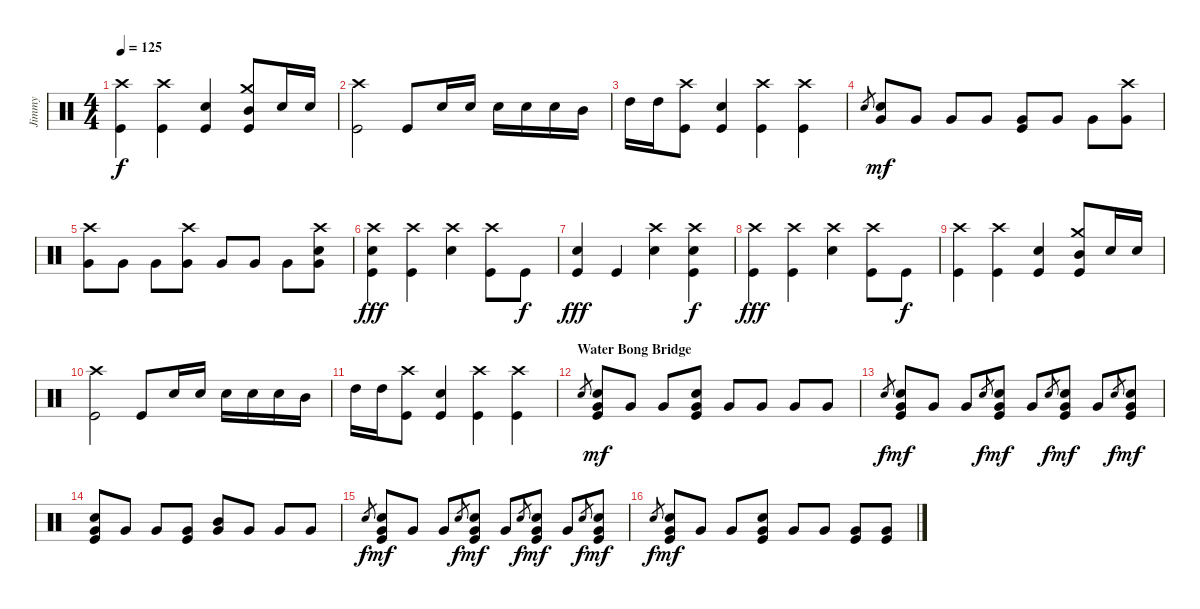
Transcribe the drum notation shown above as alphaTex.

\track ("Jimmy" "Jimmy") {instrument percussion}
\staff {score}
\articulation defaults
\ts (4 4)
\tempo 125
\clef neutral
\ks c
("Crash high (hit)" "Kick (hit)").4{dy f} ("Crash high (hit)" "Kick (hit)").4 ("Snare (hit) 2" "Kick (hit)").4 ("Crash medium (hit)" "Mid Tom (hit)" "Kick (hit)").8 "Snare (hit) 2".16 "Snare (hit) 2".16 |
("Crash high (hit)" "Kick (hit)").2 "Kick (hit)".8 "Snare (hit) 2".16 "Snare (hit) 2".16 "Snare (hit) 2".16 "Snare (hit) 2".16 "Snare (hit) 2".16 "Mid Tom (hit)".16 |
"High Tom (hit)".16 "High Tom (hit)".16 ("Crash high (hit)" "Kick (hit)").8 ("Snare (hit) 2" "Kick (hit)").4 ("Crash high (hit)" "Kick (hit)").4 ("Crash high (hit)" "Kick (hit)").4 |
"Electric Snare (hit)".8{gr} ("Electric Snare (hit)" "Very Low Tom (hit)").8{dy mf} "Very Low Tom (hit)".8 "Very Low Tom (hit)".8 "Very Low Tom (hit)".8 ("Kick (hit)" "Very Low Tom (hit)").8 "Very Low Tom (hit)".8 "Very Low Tom (hit)".8 ("Crash high (hit)" "Very Low Tom (hit)").8 |
("Crash high (hit)" "Very Low Tom (hit)").8 "Very Low Tom (hit)".8 "Very Low Tom (hit)".8 ("Crash high (hit)" "Very Low Tom (hit)").8 "Very Low Tom (hit)".8 "Very Low Tom (hit)".8 "Very Low Tom (hit)".8 ("Crash high (hit)" "Electric Snare (hit)" "Very Low Tom (hit)").8 |
("Crash high (hit)" "Snare (hit) 2" "Kick (hit)").4{dy fff} ("Crash high (hit)" "Kick (hit)").4 ("Crash high (hit)" "Snare (hit) 2").4 ("Crash high (hit)" "Kick (hit)").8 "Kick (hit)".8{dy f} |
("Snare (hit) 2" "Kick (hit)").4{dy fff} "Kick (hit)".4 ("Crash high (hit)" "Snare (hit) 2").4 ("Crash high (hit)" "Snare (hit) 2" "Kick (hit)").4{dy f} |
("Crash high (hit)" "Kick (hit)").4{dy fff} ("Crash high (hit)" "Kick (hit)").4 ("Crash high (hit)" "Snare (hit) 2").4 ("Crash high (hit)" "Kick (hit)").8 "Kick (hit)".8{dy f} |
("Crash high (hit)" "Kick (hit)").4 ("Crash high (hit)" "Kick (hit)").4 ("Snare (hit) 2" "Kick (hit)").4 ("Crash medium (hit)" "Mid Tom (hit)" "Kick (hit)").8 "Snare (hit) 2".16 "Snare (hit) 2".16 |
("Crash high (hit)" "Kick (hit)").2 "Kick (hit)".8 "Snare (hit) 2".16 "Snare (hit) 2".16 "Snare (hit) 2".16 "Snare (hit) 2".16 "Snare (hit) 2".16 "Mid Tom (hit)".16 |
"High Tom (hit)".16 "High Tom (hit)".16 ("Crash high (hit)" "Kick (hit)").8 ("Snare (hit) 2" "Kick (hit)").4 ("Crash high (hit)" "Kick (hit)").4 ("Crash high (hit)" "Kick (hit)").4 |
\section ("" "Water Bong Bridge")
"Electric Snare (hit)".8{gr} ("Kick (hit)" "Electric Snare (hit)" "Very Low Tom (hit)").8{dy mf} "Very Low Tom (hit)".8 "Very Low Tom (hit)".8 ("Kick (hit)" "Electric Snare (hit)" "Very Low Tom (hit)").8 "Very Low Tom (hit)".8 "Very Low Tom (hit)".8 "Very Low Tom (hit)".8 "Very Low Tom (hit)".8 |
"Electric Snare (hit)".8{gr dy f} ("Kick (hit)" "Electric Snare (hit)" "Very Low Tom (hit)").8{dy mf} "Very Low Tom (hit)".8 "Very Low Tom (hit)".8 "Electric Snare (hit)".8{gr dy f} ("Kick (hit)" "Electric Snare (hit)" "Very Low Tom (hit)").8{dy mf} "Very Low Tom (hit)".8 "Electric Snare (hit)".8{gr dy f} ("Kick (hit)" "Electric Snare (hit)" "Very Low Tom (hit)").8{dy mf} "Very Low Tom (hit)".8 "Electric Snare (hit)".8{gr dy f} ("Kick (hit)" "Electric Snare (hit)" "Very Low Tom (hit)").8{dy mf} |
("Kick (hit)" "Electric Snare (hit)" "Very Low Tom (hit)").8 "Very Low Tom (hit)".8 "Very Low Tom (hit)".8 ("Kick (hit)" "Very Low Tom (hit)").8 ("Mid Tom (hit)" "Very Low Tom (hit)").8 "Very Low Tom (hit)".8 "Very Low Tom (hit)".8 "Very Low Tom (hit)".8 |
"Electric Snare (hit)".8{gr dy f} ("Kick (hit)" "Electric Snare (hit)" "Very Low Tom (hit)").8{dy mf} "Very Low Tom (hit)".8 "Very Low Tom (hit)".8 "Electric Snare (hit)".8{gr dy f} ("Kick (hit)" "Electric Snare (hit)" "Very Low Tom (hit)").8{dy mf} "Very Low Tom (hit)".8 "Electric Snare (hit)".8{gr dy f} ("Kick (hit)" "Electric Snare (hit)" "Very Low Tom (hit)").8{dy mf} "Very Low Tom (hit)".8 "Electric Snare (hit)".8{gr dy f} ("Kick (hit)" "Electric Snare (hit)" "Very Low Tom (hit)").8{dy mf} |
"Electric Snare (hit)".8{gr dy f} ("Kick (hit)" "Electric Snare (hit)" "Very Low Tom (hit)").8{dy mf} "Very Low Tom (hit)".8 "Very Low Tom (hit)".8 ("Kick (hit)" "Electric Snare (hit)" "Very Low Tom (hit)").8 "Very Low Tom (hit)".8 "Very Low Tom (hit)".8 ("Kick (hit)" "Very Low Tom (hit)").8 ("Kick (hit)" "Very Low Tom (hit)").8
